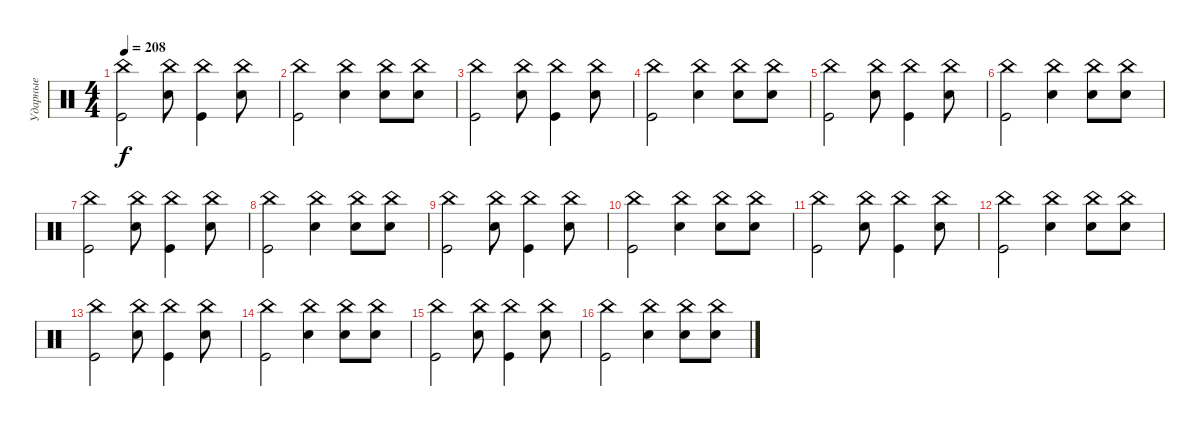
\track ("Ударные" "Ударные") {instrument percussion}
\staff {score}
\articulation defaults
\ts (4 4)
\tempo 208
\clef neutral
\ks c
("Kick (hit)" "China (hit)").2{dy f} ("Snare (hit) 2" "China (hit)").8 ("Kick (hit)" "China (hit)").4 ("Snare (hit) 2" "China (hit)").8 |
("Kick (hit)" "China (hit)").2 ("Snare (hit) 2" "China (hit)").4 ("Snare (hit) 2" "China (hit)").8 ("Snare (hit) 2" "China (hit)").8 |
("Kick (hit)" "China (hit)").2 ("Snare (hit) 2" "China (hit)").8 ("Kick (hit)" "China (hit)").4 ("Snare (hit) 2" "China (hit)").8 |
("Kick (hit)" "China (hit)").2 ("Snare (hit) 2" "China (hit)").4 ("Snare (hit) 2" "China (hit)").8 ("Snare (hit) 2" "China (hit)").8 |
("Kick (hit)" "China (hit)").2 ("Snare (hit) 2" "China (hit)").8 ("Kick (hit)" "China (hit)").4 ("Snare (hit) 2" "China (hit)").8 |
("Kick (hit)" "China (hit)").2 ("Snare (hit) 2" "China (hit)").4 ("Snare (hit) 2" "China (hit)").8 ("Snare (hit) 2" "China (hit)").8 |
("Kick (hit)" "China (hit)").2 ("Snare (hit) 2" "China (hit)").8 ("Kick (hit)" "China (hit)").4 ("Snare (hit) 2" "China (hit)").8 |
("Kick (hit)" "China (hit)").2 ("Snare (hit) 2" "China (hit)").4 ("Snare (hit) 2" "China (hit)").8 ("Snare (hit) 2" "China (hit)").8 |
("Kick (hit)" "China (hit)").2 ("Snare (hit) 2" "China (hit)").8 ("Kick (hit)" "China (hit)").4 ("Snare (hit) 2" "China (hit)").8 |
("Kick (hit)" "China (hit)").2 ("Snare (hit) 2" "China (hit)").4 ("Snare (hit) 2" "China (hit)").8 ("Snare (hit) 2" "China (hit)").8 |
("Kick (hit)" "China (hit)").2 ("Snare (hit) 2" "China (hit)").8 ("Kick (hit)" "China (hit)").4 ("Snare (hit) 2" "China (hit)").8 |
("Kick (hit)" "China (hit)").2 ("Snare (hit) 2" "China (hit)").4 ("Snare (hit) 2" "China (hit)").8 ("Snare (hit) 2" "China (hit)").8 |
("Kick (hit)" "China (hit)").2 ("Snare (hit) 2" "China (hit)").8 ("Kick (hit)" "China (hit)").4 ("Snare (hit) 2" "China (hit)").8 |
("Kick (hit)" "China (hit)").2 ("Snare (hit) 2" "China (hit)").4 ("Snare (hit) 2" "China (hit)").8 ("Snare (hit) 2" "China (hit)").8 |
("Kick (hit)" "China (hit)").2 ("Snare (hit) 2" "China (hit)").8 ("Kick (hit)" "China (hit)").4 ("Snare (hit) 2" "China (hit)").8 |
("Kick (hit)" "China (hit)").2 ("Snare (hit) 2" "China (hit)").4 ("Snare (hit) 2" "China (hit)").8 ("Snare (hit) 2" "China (hit)").8
